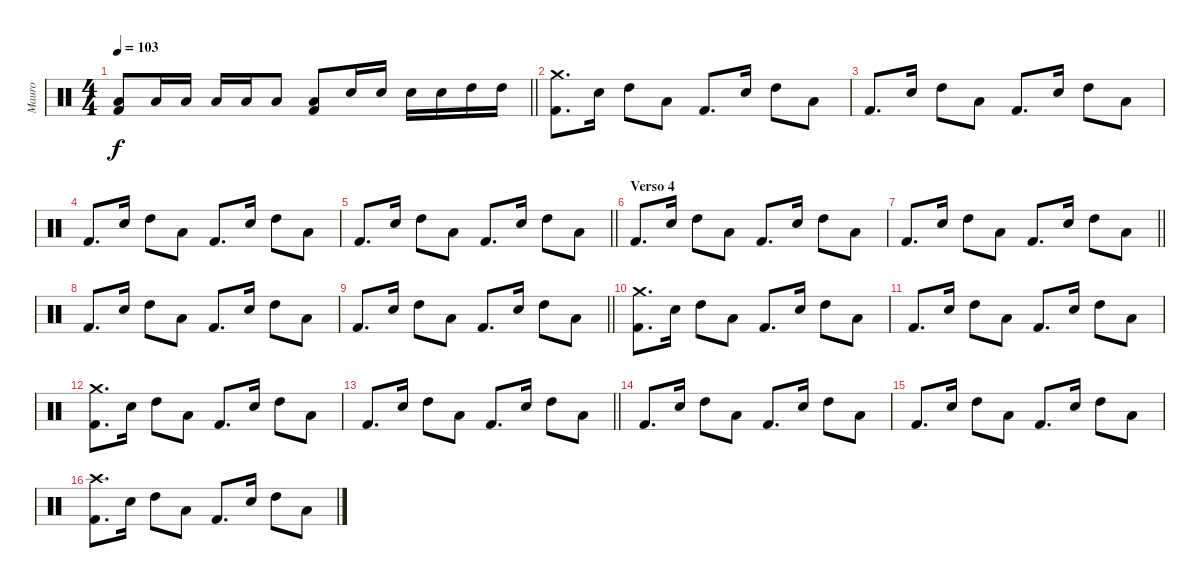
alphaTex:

\track ("Mauro" "Mauro") {instrument percussion}
\staff {score}
\articulation defaults
\ts (4 4)
\tempo 103
\clef neutral
\barLineRight lightlight
\ks c
("Low Floor Tom (hit)" "Kick (hit) 2").8{dy f} "Low Floor Tom (hit)".16 "Low Floor Tom (hit)".16 "Low Floor Tom (hit)".16 "Low Floor Tom (hit)".16 "Low Floor Tom (hit)".8 ("Low Floor Tom (hit)" "Kick (hit) 2").8 "Electric Snare (hit)".16 "Electric Snare (hit)".16 "Electric Snare (hit)".16 "Electric Snare (hit)".16 "High Tom (hit)".16 "High Tom (hit)".16 |
\section ("" "")
("Kick (hit) 2" "Crash medium (hit)").8{d} "Electric Snare (hit)".16 "High Tom (hit)".8 "Low Floor Tom (hit)".8 "Kick (hit) 2".8{d} "Electric Snare (hit)".16 "High Tom (hit)".8 "Low Floor Tom (hit)".8 |
"Kick (hit) 2".8{d} "Electric Snare (hit)".16 "High Tom (hit)".8 "Low Floor Tom (hit)".8 "Kick (hit) 2".8{d} "Electric Snare (hit)".16 "High Tom (hit)".8 "Low Floor Tom (hit)".8 |
"Kick (hit) 2".8{d} "Electric Snare (hit)".16 "High Tom (hit)".8 "Low Floor Tom (hit)".8 "Kick (hit) 2".8{d} "Electric Snare (hit)".16 "High Tom (hit)".8 "Low Floor Tom (hit)".8 |
\barLineRight lightlight "Kick (hit) 2".8{d} "Electric Snare (hit)".16 "High Tom (hit)".8 "Low Floor Tom (hit)".8 "Kick (hit) 2".8{d} "Electric Snare (hit)".16 "High Tom (hit)".8 "Low Floor Tom (hit)".8
|
\section ("" "Verso 4")
"Kick (hit) 2".8{d} "Electric Snare (hit)".16 "High Tom (hit)".8 "Low Floor Tom (hit)".8 "Kick (hit) 2".8{d} "Electric Snare (hit)".16 "High Tom (hit)".8 "Low Floor Tom (hit)".8 |
\barLineRight lightlight "Kick (hit) 2".8{d} "Electric Snare (hit)".16 "High Tom (hit)".8 "Low Floor Tom (hit)".8 "Kick (hit) 2".8{d} "Electric Snare (hit)".16 "High Tom (hit)".8 "Low Floor Tom (hit)".8
|
"Kick (hit) 2".8{d} "Electric Snare (hit)".16 "High Tom (hit)".8 "Low Floor Tom (hit)".8 "Kick (hit) 2".8{d} "Electric Snare (hit)".16 "High Tom (hit)".8 "Low Floor Tom (hit)".8 |
\barLineRight lightlight "Kick (hit) 2".8{d} "Electric Snare (hit)".16 "High Tom (hit)".8 "Low Floor Tom (hit)".8 "Kick (hit) 2".8{d} "Electric Snare (hit)".16 "High Tom (hit)".8 "Low Floor Tom (hit)".8
|
("Kick (hit) 2" "Crash medium (hit)").8{d} "Electric Snare (hit)".16 "High Tom (hit)".8 "Low Floor Tom (hit)".8 "Kick (hit) 2".8{d} "Electric Snare (hit)".16 "High Tom (hit)".8 "Low Floor Tom (hit)".8 |
"Kick (hit) 2".8{d} "Electric Snare (hit)".16 "High Tom (hit)".8 "Low Floor Tom (hit)".8 "Kick (hit) 2".8{d} "Electric Snare (hit)".16 "High Tom (hit)".8 "Low Floor Tom (hit)".8 |
("Kick (hit) 2" "Crash medium (hit)").8{d} "Electric Snare (hit)".16 "High Tom (hit)".8 "Low Floor Tom (hit)".8 "Kick (hit) 2".8{d} "Electric Snare (hit)".16 "High Tom (hit)".8 "Low Floor Tom (hit)".8 |
\barLineRight lightlight "Kick (hit) 2".8{d} "Electric Snare (hit)".16 "High Tom (hit)".8 "Low Floor Tom (hit)".8 "Kick (hit) 2".8{d} "Electric Snare (hit)".16 "High Tom (hit)".8 "Low Floor Tom (hit)".8
|
\section ("" "")
"Kick (hit) 2".8{d} "Electric Snare (hit)".16 "High Tom (hit)".8 "Low Floor Tom (hit)".8 "Kick (hit) 2".8{d} "Electric Snare (hit)".16 "High Tom (hit)".8 "Low Floor Tom (hit)".8 |
"Kick (hit) 2".8{d} "Electric Snare (hit)".16 "High Tom (hit)".8 "Low Floor Tom (hit)".8 "Kick (hit) 2".8{d} "Electric Snare (hit)".16 "High Tom (hit)".8 "Low Floor Tom (hit)".8 |
("Kick (hit) 2" "Crash high (hit)").8{d} "Electric Snare (hit)".16 "High Tom (hit)".8 "Low Floor Tom (hit)".8 "Kick (hit) 2".8{d} "Electric Snare (hit)".16 "High Tom (hit)".8 "Low Floor Tom (hit)".8
